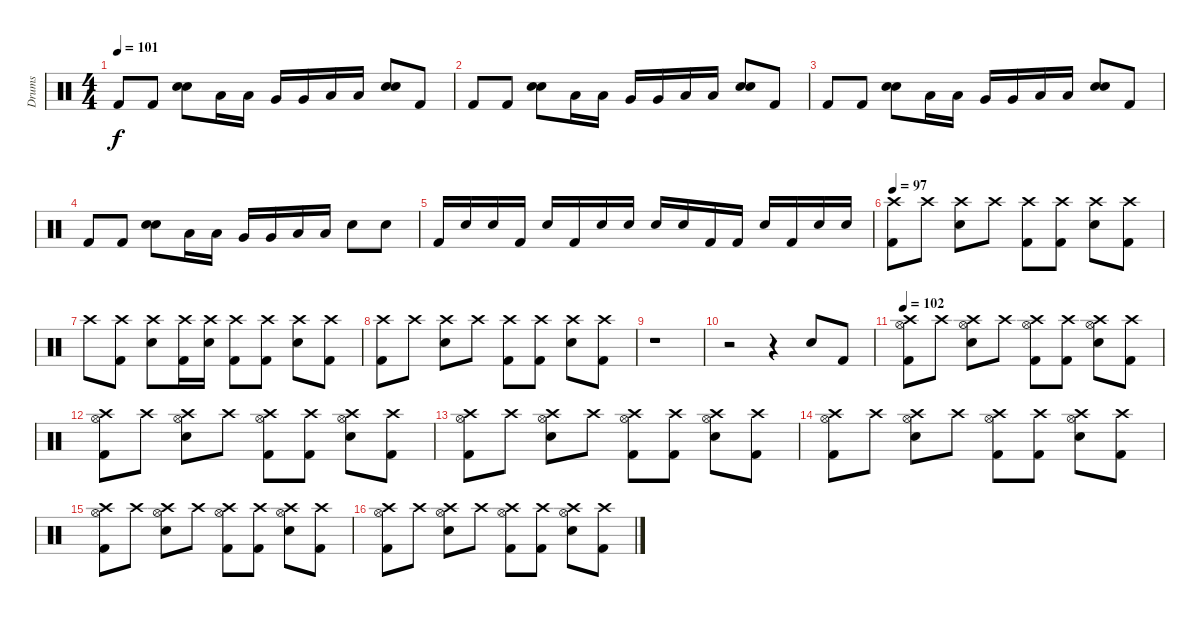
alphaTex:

\track ("Drums" "Drums") {instrument percussion}
\staff {score}
\articulation defaults
\ts (4 4)
\tempo 101
\clef neutral
\ks c "Kick (hit) 2".8{dy f} "Kick (hit) 2".8
("Electric Snare (hit)" "Electric Snare (hit)").8 "Low Tom (hit)".16 "Low Tom (hit)".16 "Very Low Tom (hit)".16 "Very Low Tom (hit)".16 "Low Floor Tom (hit)".16 "Low Floor Tom (hit)".16 ("Electric Snare (hit)" "Electric Snare (hit)").8 "Kick (hit) 2".8 |
"Kick (hit) 2".8 "Kick (hit) 2".8 ("Electric Snare (hit)" "Electric Snare (hit)").8 "Low Tom (hit)".16 "Low Tom (hit)".16 "Very Low Tom (hit)".16 "Very Low Tom (hit)".16 "Low Floor Tom (hit)".16 "Low Floor Tom (hit)".16 ("Electric Snare (hit)" "Electric Snare (hit)").8 "Kick (hit) 2".8 |
"Kick (hit) 2".8 "Kick (hit) 2".8 ("Electric Snare (hit)" "Electric Snare (hit)").8 "Low Tom (hit)".16 "Low Tom (hit)".16 "Very Low Tom (hit)".16 "Very Low Tom (hit)".16 "Low Floor Tom (hit)".16 "Low Floor Tom (hit)".16 ("Electric Snare (hit)" "Electric Snare (hit)").8 "Kick (hit) 2".8 |
"Kick (hit) 2".8 "Kick (hit) 2".8 ("Electric Snare (hit)" "Electric Snare (hit)").8 "Low Tom (hit)".16 "Low Tom (hit)".16 "Very Low Tom (hit)".16 "Very Low Tom (hit)".16 "Low Floor Tom (hit)".16 "Low Floor Tom (hit)".16 "Electric Snare (hit)".8 "Electric Snare (hit)".8 |
"Kick (hit) 2".16 "Electric Snare (hit)".16 "Electric Snare (hit)".16 "Kick (hit) 2".16 "Electric Snare (hit)".16 "Kick (hit) 2".16 "Electric Snare (hit)".16 "Electric Snare (hit)".16 "Electric Snare (hit)".16 "Electric Snare (hit)".16 "Kick (hit) 2".16 "Kick (hit) 2".16 "Electric Snare (hit)".16 "Kick (hit) 2".16 "Electric Snare (hit)".16 "Electric Snare (hit)".16 |
\tempo 97
("Crash high (hit)" "Kick (hit) 2").8 "Crash high (hit)".8 ("Crash high (hit)" "Electric Snare (hit)").8 "Crash high (hit)".8 ("Crash high (hit)" "Kick (hit) 2").8 ("Crash high (hit)" "Kick (hit) 2").8 ("Crash high (hit)" "Electric Snare (hit)").8 ("Crash high (hit)" "Kick (hit) 2").8 |
"Crash high (hit)".8 ("Crash high (hit)" "Kick (hit) 2").8 ("Crash high (hit)" "Electric Snare (hit)").8 ("Crash high (hit)" "Kick (hit) 2").16 ("Crash high (hit)" "Electric Snare (hit)").16 ("Crash high (hit)" "Kick (hit) 2").8 ("Crash high (hit)" "Kick (hit) 2").8 ("Crash high (hit)" "Electric Snare (hit)").8 ("Crash high (hit)" "Kick (hit) 2").8 |
("Crash high (hit)" "Kick (hit) 2").8 "Crash high (hit)".8 ("Crash high (hit)" "Electric Snare (hit)").8 "Crash high (hit)".8 ("Crash high (hit)" "Kick (hit) 2").8 ("Crash high (hit)" "Kick (hit) 2").8 ("Crash high (hit)" "Electric Snare (hit)").8 ("Crash high (hit)" "Kick (hit) 2").8 |
r.1 |
r.2 r.4 "Electric Snare (hit)".8 "Kick (hit) 2".8 |
\tempo 102
("Crash high (hit)" "Hi-Hat (open)" "Kick (hit) 2").8 "Crash high (hit)".8 ("Crash high (hit)" "Hi-Hat (open)" "Electric Snare (hit)").8 "Crash high (hit)".8 ("Crash high (hit)" "Hi-Hat (open)" "Kick (hit) 2").8 ("Crash high (hit)" "Kick (hit) 2").8 ("Crash high (hit)" "Hi-Hat (open)" "Electric Snare (hit)").8 ("Crash high (hit)" "Kick (hit) 2").8 |
("Crash high (hit)" "Hi-Hat (open)" "Kick (hit) 2").8 "Crash high (hit)".8 ("Crash high (hit)" "Hi-Hat (open)" "Electric Snare (hit)").8 "Crash high (hit)".8 ("Crash high (hit)" "Hi-Hat (open)" "Kick (hit) 2").8 ("Crash high (hit)" "Kick (hit) 2").8 ("Crash high (hit)" "Hi-Hat (open)" "Electric Snare (hit)").8 ("Crash high (hit)" "Kick (hit) 2").8 |
("Crash high (hit)" "Hi-Hat (open)" "Kick (hit) 2").8 "Crash high (hit)".8 ("Crash high (hit)" "Hi-Hat (open)" "Electric Snare (hit)").8 "Crash high (hit)".8 ("Crash high (hit)" "Hi-Hat (open)" "Kick (hit) 2").8 ("Crash high (hit)" "Kick (hit) 2").8 ("Crash high (hit)" "Hi-Hat (open)" "Electric Snare (hit)").8 ("Crash high (hit)" "Kick (hit) 2").8 |
("Crash high (hit)" "Hi-Hat (open)" "Kick (hit) 2").8 "Crash high (hit)".8 ("Crash high (hit)" "Hi-Hat (open)" "Electric Snare (hit)").8 "Crash high (hit)".8 ("Crash high (hit)" "Hi-Hat (open)" "Kick (hit) 2").8 ("Crash high (hit)" "Kick (hit) 2").8 ("Crash high (hit)" "Hi-Hat (open)" "Electric Snare (hit)").8 ("Crash high (hit)" "Kick (hit) 2").8 |
("Crash high (hit)" "Hi-Hat (open)" "Kick (hit) 2").8 "Crash high (hit)".8 ("Crash high (hit)" "Hi-Hat (open)" "Electric Snare (hit)").8 "Crash high (hit)".8 ("Crash high (hit)" "Hi-Hat (open)" "Kick (hit) 2").8 ("Crash high (hit)" "Kick (hit) 2").8 ("Crash high (hit)" "Hi-Hat (open)" "Electric Snare (hit)").8 ("Crash high (hit)" "Kick (hit) 2").8 |
("Crash high (hit)" "Hi-Hat (open)" "Kick (hit) 2").8 "Crash high (hit)".8 ("Crash high (hit)" "Hi-Hat (open)" "Electric Snare (hit)").8 "Crash high (hit)".8 ("Crash high (hit)" "Hi-Hat (open)" "Kick (hit) 2").8 ("Crash high (hit)" "Kick (hit) 2").8 ("Crash high (hit)" "Hi-Hat (open)" "Electric Snare (hit)").8 ("Crash high (hit)" "Kick (hit) 2").8
